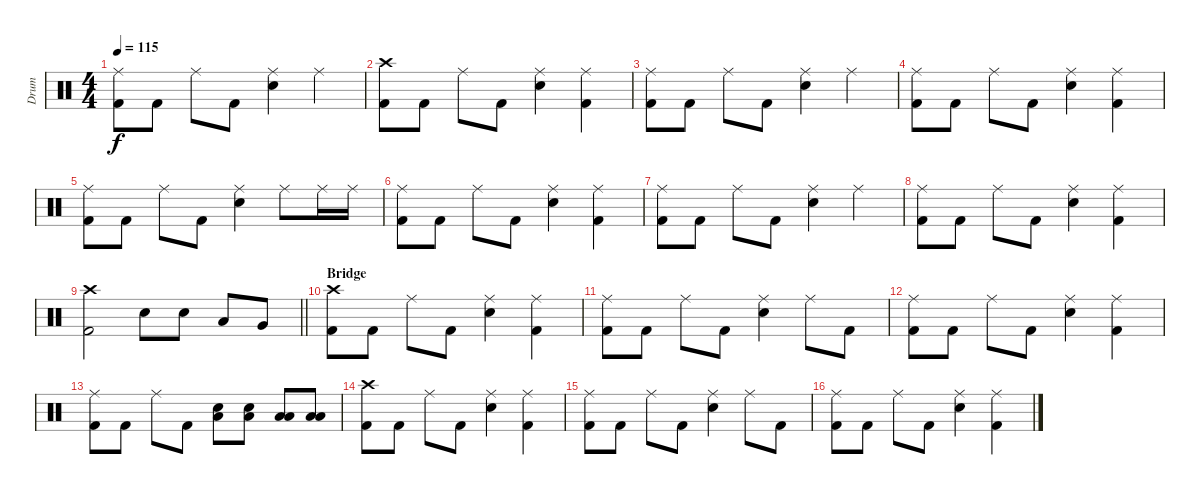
\track ("Drum" "Drum") {instrument percussion}
\staff {score}
\articulation defaults
\ts (4 4)
\tempo 115
\clef neutral
\ks c
("Kick (hit) 2" "Ride (middle)").8{dy f} "Kick (hit) 2".8 "Ride (middle)".8 "Kick (hit) 2".8 ("Ride (middle)" "Electric Snare (hit)").4 "Ride (middle)".4 |
("Kick (hit) 2" "Crash high (hit)").8 "Kick (hit) 2".8 "Ride (middle)".8 "Kick (hit) 2".8 ("Ride (middle)" "Electric Snare (hit)").4 ("Kick (hit) 2" "Ride (middle)").4 |
("Kick (hit) 2" "Ride (middle)").8 "Kick (hit) 2".8 "Ride (middle)".8 "Kick (hit) 2".8 ("Ride (middle)" "Electric Snare (hit)").4 "Ride (middle)".4 |
("Kick (hit) 2" "Ride (middle)").8 "Kick (hit) 2".8 "Ride (middle)".8 "Kick (hit) 2".8 ("Ride (middle)" "Electric Snare (hit)").4 ("Kick (hit) 2" "Ride (middle)").4 |
("Kick (hit) 2" "Ride (middle)").8 "Kick (hit) 2".8 "Ride (middle)".8 "Kick (hit) 2".8 ("Ride (middle)" "Electric Snare (hit)").4 "Ride (middle)".8 "Ride (middle)".16 "Ride (middle)".16 |
("Kick (hit) 2" "Ride (middle)").8 "Kick (hit) 2".8 "Ride (middle)".8 "Kick (hit) 2".8 ("Ride (middle)" "Electric Snare (hit)").4 ("Kick (hit) 2" "Ride (middle)").4 |
("Kick (hit) 2" "Ride (middle)").8 "Kick (hit) 2".8 "Ride (middle)".8 "Kick (hit) 2".8 ("Ride (middle)" "Electric Snare (hit)").4 "Ride (middle)".4 |
("Kick (hit) 2" "Ride (middle)").8 "Kick (hit) 2".8 "Ride (middle)".8 "Kick (hit) 2".8 ("Ride (middle)" "Electric Snare (hit)").4 ("Kick (hit) 2" "Ride (middle)").4 |
\barLineRight lightlight
("Kick (hit) 2" "Crash high (hit)").2 "Electric Snare (hit)".8 "Electric Snare (hit)".8 "Low Tom (hit)".8 "Very Low Tom (hit)".8 |
\section ("" "Bridge")
("Kick (hit) 2" "Crash high (hit)").8 "Kick (hit) 2".8 "Ride (middle)".8 "Kick (hit) 2".8 ("Ride (middle)" "Electric Snare (hit)").4 ("Kick (hit) 2" "Ride (middle)").4 |
("Kick (hit) 2" "Ride (middle)").8 "Kick (hit) 2".8 "Ride (middle)".8 "Kick (hit) 2".8 ("Ride (middle)" "Electric Snare (hit)").4 "Ride (middle)".8 "Kick (hit) 2".8 |
("Kick (hit) 2" "Ride (middle)").8 "Kick (hit) 2".8 "Ride (middle)".8 "Kick (hit) 2".8 ("Ride (middle)" "Electric Snare (hit)").4 ("Kick (hit) 2" "Ride (middle)").4 |
("Kick (hit) 2" "Ride (middle)").8 "Kick (hit) 2".8 "Ride (middle)".8 "Kick (hit) 2".8 ("Low Tom (hit)" "Electric Snare (hit)").8 ("Low Tom (hit)" "Electric Snare (hit)").8 ("Low Floor Tom (hit)" "Low Tom (hit)").8 ("Low Floor Tom (hit)" "Low Tom (hit)").8 |
("Kick (hit) 2" "Crash high (hit)").8 "Kick (hit) 2".8 "Ride (middle)".8 "Kick (hit) 2".8 ("Ride (middle)" "Electric Snare (hit)").4 ("Kick (hit) 2" "Ride (middle)").4 |
("Kick (hit) 2" "Ride (middle)").8 "Kick (hit) 2".8 "Ride (middle)".8 "Kick (hit) 2".8 ("Ride (middle)" "Electric Snare (hit)").4 "Ride (middle)".8 "Kick (hit) 2".8 |
("Kick (hit) 2" "Ride (middle)").8 "Kick (hit) 2".8 "Ride (middle)".8 "Kick (hit) 2".8 ("Ride (middle)" "Electric Snare (hit)").4 ("Kick (hit) 2" "Ride (middle)").4
